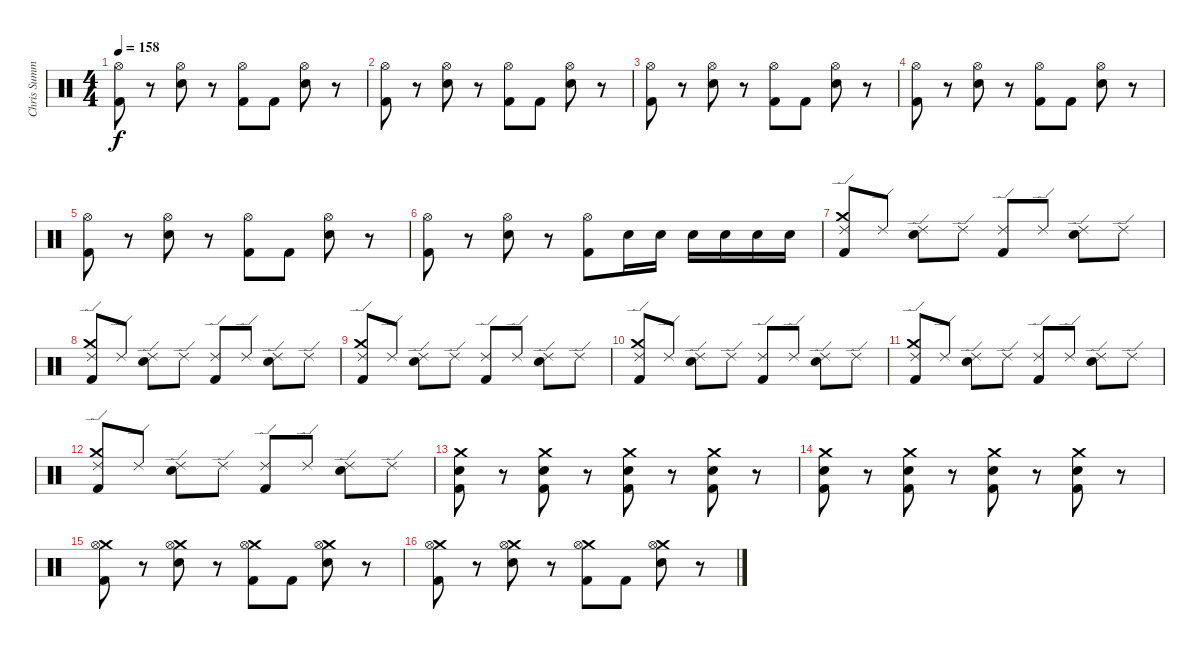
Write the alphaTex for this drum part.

\track ("Chris Summers" "Chris Summ") {instrument percussion}
\staff {score}
\articulation defaults
\ts (4 4)
\tempo 158
\clef neutral
\ks c
("Hi-Hat (open)" "Kick (hit) 2").8{dy f} r.8 ("Hi-Hat (open)" "Electric Snare (hit)").8 r.8 ("Hi-Hat (open)" "Kick (hit) 2").8 "Kick (hit) 2".8 ("Hi-Hat (open)" "Electric Snare (hit)").8 r.8 |
("Hi-Hat (open)" "Kick (hit) 2").8 r.8 ("Hi-Hat (open)" "Electric Snare (hit)").8 r.8 ("Hi-Hat (open)" "Kick (hit) 2").8 "Kick (hit) 2".8 ("Hi-Hat (open)" "Electric Snare (hit)").8 r.8 |
("Hi-Hat (open)" "Kick (hit) 2").8 r.8 ("Hi-Hat (open)" "Electric Snare (hit)").8 r.8 ("Hi-Hat (open)" "Kick (hit) 2").8 "Kick (hit) 2".8 ("Hi-Hat (open)" "Electric Snare (hit)").8 r.8 |
("Hi-Hat (open)" "Kick (hit) 2").8 r.8 ("Hi-Hat (open)" "Electric Snare (hit)").8 r.8 ("Hi-Hat (open)" "Kick (hit) 2").8 "Kick (hit) 2".8 ("Hi-Hat (open)" "Electric Snare (hit)").8 r.8 |
("Hi-Hat (open)" "Kick (hit) 2").8 r.8 ("Hi-Hat (open)" "Electric Snare (hit)").8 r.8 ("Hi-Hat (open)" "Kick (hit) 2").8 "Kick (hit) 2".8 ("Hi-Hat (open)" "Electric Snare (hit)").8 r.8 |
("Hi-Hat (open)" "Kick (hit) 2").8 r.8 ("Hi-Hat (open)" "Electric Snare (hit)").8 r.8 ("Hi-Hat (open)" "Kick (hit) 2").8 "Electric Snare (hit)".16 "Electric Snare (hit)".16 "Electric Snare (hit)".16 "Electric Snare (hit)".16 "Electric Snare (hit)".16 "Electric Snare (hit)".16 |
("Crash medium (hit)" "Ride (edge) 2" "Kick (hit) 2").8 "Ride (edge) 2".8 ("Ride (edge) 2" "Electric Snare (hit)").8 "Ride (edge) 2".8 ("Ride (edge) 2" "Kick (hit) 2").8 "Ride (edge) 2".8 ("Ride (edge) 2" "Electric Snare (hit)").8 "Ride (edge) 2".8 |
("Crash medium (hit)" "Ride (edge) 2" "Kick (hit) 2").8 "Ride (edge) 2".8 ("Ride (edge) 2" "Electric Snare (hit)").8 "Ride (edge) 2".8 ("Ride (edge) 2" "Kick (hit) 2").8 "Ride (edge) 2".8 ("Ride (edge) 2" "Electric Snare (hit)").8 "Ride (edge) 2".8 |
("Crash medium (hit)" "Ride (edge) 2" "Kick (hit) 2").8 "Ride (edge) 2".8 ("Ride (edge) 2" "Electric Snare (hit)").8 "Ride (edge) 2".8 ("Ride (edge) 2" "Kick (hit) 2").8 "Ride (edge) 2".8 ("Ride (edge) 2" "Electric Snare (hit)").8 "Ride (edge) 2".8 |
("Crash medium (hit)" "Ride (edge) 2" "Kick (hit) 2").8 "Ride (edge) 2".8 ("Ride (edge) 2" "Electric Snare (hit)").8 "Ride (edge) 2".8 ("Ride (edge) 2" "Kick (hit) 2").8 "Ride (edge) 2".8 ("Ride (edge) 2" "Electric Snare (hit)").8 "Ride (edge) 2".8 |
("Crash medium (hit)" "Ride (edge) 2" "Kick (hit) 2").8 "Ride (edge) 2".8 ("Ride (edge) 2" "Electric Snare (hit)").8 "Ride (edge) 2".8 ("Ride (edge) 2" "Kick (hit) 2").8 "Ride (edge) 2".8 ("Ride (edge) 2" "Electric Snare (hit)").8 "Ride (edge) 2".8 |
("Crash medium (hit)" "Ride (edge) 2" "Kick (hit) 2").8 "Ride (edge) 2".8 ("Ride (edge) 2" "Electric Snare (hit)").8 "Ride (edge) 2".8 ("Ride (edge) 2" "Kick (hit) 2").8 "Ride (edge) 2".8 ("Ride (edge) 2" "Electric Snare (hit)").8 "Ride (edge) 2".8 |
("Kick (hit) 2" "Crash medium (hit)" "Electric Snare (hit)").8 r.8 ("Kick (hit) 2" "Crash medium (hit)" "Electric Snare (hit)").8 r.8 ("Kick (hit) 2" "Crash medium (hit)" "Electric Snare (hit)").8 r.8 ("Kick (hit) 2" "Crash medium (hit)" "Electric Snare (hit)").8 r.8 |
("Kick (hit) 2" "Crash medium (hit)" "Electric Snare (hit)").8 r.8 ("Kick (hit) 2" "Crash medium (hit)" "Electric Snare (hit)").8 r.8 ("Kick (hit) 2" "Crash medium (hit)" "Electric Snare (hit)").8 r.8 ("Kick (hit) 2" "Crash medium (hit)" "Electric Snare (hit)").8 r.8 |
("Crash medium (hit)" "Hi-Hat (open)" "Kick (hit) 2").8 r.8 ("Crash medium (hit)" "Hi-Hat (open)" "Electric Snare (hit)").8 r.8 ("Crash medium (hit)" "Hi-Hat (open)" "Kick (hit) 2").8 "Kick (hit) 2".8 ("Crash medium (hit)" "Hi-Hat (open)" "Electric Snare (hit)").8 r.8 |
("Crash medium (hit)" "Hi-Hat (open)" "Kick (hit) 2").8 r.8 ("Crash medium (hit)" "Hi-Hat (open)" "Electric Snare (hit)").8 r.8 ("Crash medium (hit)" "Hi-Hat (open)" "Kick (hit) 2").8 "Kick (hit) 2".8 ("Crash medium (hit)" "Hi-Hat (open)" "Electric Snare (hit)").8 r.8
